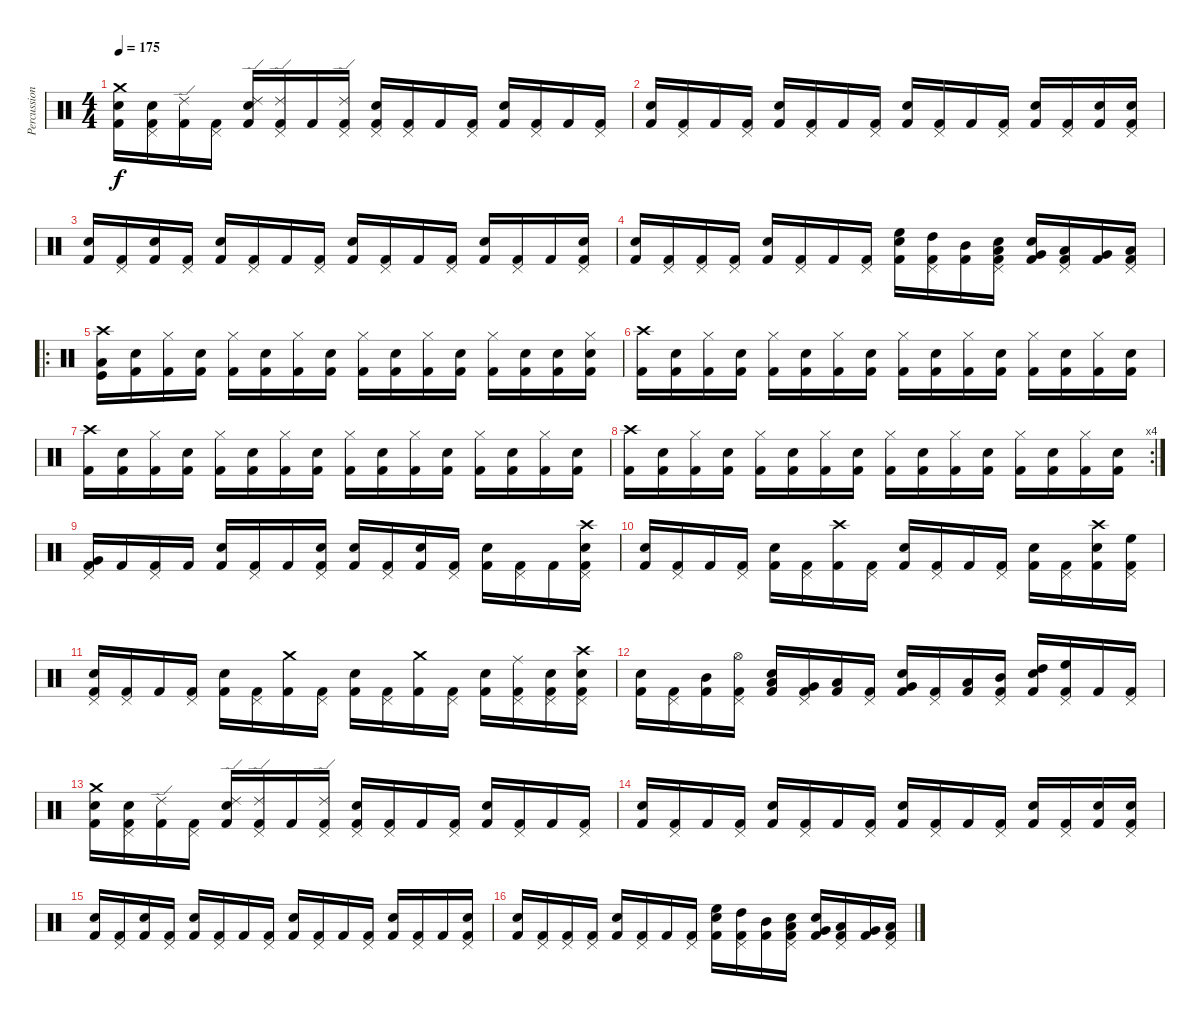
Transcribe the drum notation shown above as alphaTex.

\track ("Percussion" "Percussion") {instrument percussion}
\staff {score}
\articulation defaults
\ts (4 4)
\tempo 175
\clef neutral
\ks c
("Crash medium (hit)" "Snare (hit) 2" "Kick (hit) 2").16{dy f} ("Pedal Hi-Hat (hit)" "Snare (hit) 2" "Kick (hit) 2").16 ("Ride (edge) 2" "Kick (hit) 2").16 ("Pedal Hi-Hat (hit)" "Kick (hit) 2").16 ("Ride (edge) 2" "Snare (hit) 2" "Kick (hit) 2").16 ("Ride (edge) 2" "Pedal Hi-Hat (hit)" "Kick (hit) 2").16 "Kick (hit) 2".16 ("Ride (edge) 2" "Pedal Hi-Hat (hit)" "Kick (hit) 2").16 ("Pedal Hi-Hat (hit)" "Snare (hit) 2" "Kick (hit) 2").16 ("Pedal Hi-Hat (hit)" "Kick (hit) 2").16 "Kick (hit) 2".16 ("Pedal Hi-Hat (hit)" "Kick (hit) 2").16 ("Snare (hit) 2" "Kick (hit) 2").16 ("Pedal Hi-Hat (hit)" "Kick (hit) 2").16 "Kick (hit) 2".16 ("Pedal Hi-Hat (hit)" "Kick (hit) 2").16 |
("Snare (hit) 2" "Kick (hit) 2").16 ("Pedal Hi-Hat (hit)" "Kick (hit) 2").16 "Kick (hit) 2".16 ("Pedal Hi-Hat (hit)" "Kick (hit) 2").16 ("Snare (hit) 2" "Kick (hit) 2").16 ("Pedal Hi-Hat (hit)" "Kick (hit) 2").16 "Kick (hit) 2".16 ("Pedal Hi-Hat (hit)" "Kick (hit) 2").16 ("Snare (hit) 2" "Kick (hit) 2").16 ("Pedal Hi-Hat (hit)" "Kick (hit) 2").16 "Kick (hit) 2".16 ("Pedal Hi-Hat (hit)" "Kick (hit) 2").16 ("Snare (hit) 2" "Kick (hit) 2").16 ("Pedal Hi-Hat (hit)" "Kick (hit) 2").16 ("Snare (hit) 2" "Kick (hit) 2").16 ("Pedal Hi-Hat (hit)" "Snare (hit) 2" "Kick (hit) 2").16 |
("Snare (hit) 2" "Kick (hit) 2").16 ("Pedal Hi-Hat (hit)" "Kick (hit) 2").16 ("Snare (hit) 2" "Kick (hit) 2").16 ("Pedal Hi-Hat (hit)" "Kick (hit) 2").16 ("Snare (hit) 2" "Kick (hit) 2").16 ("Pedal Hi-Hat (hit)" "Kick (hit) 2").16 "Kick (hit) 2".16 ("Pedal Hi-Hat (hit)" "Kick (hit) 2").16 ("Snare (hit) 2" "Kick (hit) 2").16 ("Pedal Hi-Hat (hit)" "Kick (hit) 2").16 "Kick (hit) 2".16 ("Pedal Hi-Hat (hit)" "Kick (hit) 2").16 ("Snare (hit) 2" "Kick (hit) 2").16 ("Pedal Hi-Hat (hit)" "Kick (hit) 2").16 "Kick (hit) 2".16 ("Pedal Hi-Hat (hit)" "Snare (hit) 2" "Kick (hit) 2").16 |
("Snare (hit) 2" "Kick (hit) 2").16 ("Pedal Hi-Hat (hit)" "Kick (hit) 2").16 ("Pedal Hi-Hat (hit)" "Kick (hit) 2").16 ("Pedal Hi-Hat (hit)" "Kick (hit) 2").16 ("Snare (hit) 2" "Kick (hit) 2").16 ("Pedal Hi-Hat (hit)" "Kick (hit) 2").16 "Kick (hit) 2".16 ("Pedal Hi-Hat (hit)" "Kick (hit) 2").16 ("High Floor Tom (hit)" "Snare (hit) 2" "Kick (hit) 2").16 ("High Tom (hit)" "Pedal Hi-Hat (hit)" "Kick (hit) 2").16 ("Mid Tom (hit)" "Kick (hit) 2").16 ("Low Tom (hit)" "Pedal Hi-Hat (hit)" "Snare (hit) 2" "Kick (hit) 2").16 ("Very Low Tom (hit)" "Snare (hit) 2" "Kick (hit) 2").16 ("Low Floor Tom (hit)" "Pedal Hi-Hat (hit)" "Kick (hit) 2").16 ("Very Low Tom (hit)" "Kick (hit) 2").16 ("Low Tom (hit)" "Pedal Hi-Hat (hit)" "Kick (hit) 2").16 |
\ro
("Low Tom (hit)" "Crash high (hit)" "Kick (hit)").16 ("Snare (hit) 2" "Kick (hit) 2").16 ("Hi-Hat (closed)" "Kick (hit) 2").16 ("Snare (hit) 2" "Kick (hit) 2").16 ("Hi-Hat (closed)" "Kick (hit) 2").16 ("Snare (hit) 2" "Kick (hit) 2").16 ("Hi-Hat (closed)" "Kick (hit) 2").16 ("Snare (hit) 2" "Kick (hit) 2").16 ("Hi-Hat (closed)" "Kick (hit) 2").16 ("Snare (hit) 2" "Kick (hit) 2").16 ("Hi-Hat (closed)" "Kick (hit) 2").16 ("Snare (hit) 2" "Kick (hit) 2").16 ("Hi-Hat (closed)" "Kick (hit) 2").16 ("Snare (hit) 2" "Kick (hit) 2").16 ("Snare (hit) 2" "Kick (hit) 2").16 ("Hi-Hat (closed)" "Snare (hit) 2" "Kick (hit) 2").16 |
("Crash high (hit)" "Kick (hit) 2").16 ("Snare (hit) 2" "Kick (hit) 2").16 ("Hi-Hat (closed)" "Kick (hit) 2").16 ("Snare (hit) 2" "Kick (hit) 2").16 ("Hi-Hat (closed)" "Kick (hit) 2").16 ("Snare (hit) 2" "Kick (hit) 2").16 ("Hi-Hat (closed)" "Kick (hit) 2").16 ("Snare (hit) 2" "Kick (hit) 2").16 ("Hi-Hat (closed)" "Kick (hit) 2").16 ("Snare (hit) 2" "Kick (hit) 2").16 ("Hi-Hat (closed)" "Kick (hit) 2").16 ("Snare (hit) 2" "Kick (hit) 2").16 ("Hi-Hat (closed)" "Kick (hit) 2").16 ("Snare (hit) 2" "Kick (hit) 2").16 ("Hi-Hat (closed)" "Kick (hit) 2").16 ("Snare (hit) 2" "Kick (hit) 2").16 |
("Crash high (hit)" "Kick (hit) 2").16 ("Snare (hit) 2" "Kick (hit) 2").16 ("Hi-Hat (closed)" "Kick (hit) 2").16 ("Snare (hit) 2" "Kick (hit) 2").16 ("Hi-Hat (closed)" "Kick (hit) 2").16 ("Snare (hit) 2" "Kick (hit) 2").16 ("Hi-Hat (closed)" "Kick (hit) 2").16 ("Snare (hit) 2" "Kick (hit) 2").16 ("Hi-Hat (closed)" "Kick (hit) 2").16 ("Snare (hit) 2" "Kick (hit) 2").16 ("Hi-Hat (closed)" "Kick (hit) 2").16 ("Snare (hit) 2" "Kick (hit) 2").16 ("Hi-Hat (closed)" "Kick (hit) 2").16 ("Snare (hit) 2" "Kick (hit) 2").16 ("Hi-Hat (closed)" "Kick (hit) 2").16 ("Snare (hit) 2" "Kick (hit) 2").16 |
\rc 4
("Crash high (hit)" "Kick (hit) 2").16 ("Snare (hit) 2" "Kick (hit) 2").16 ("Hi-Hat (closed)" "Kick (hit) 2").16 ("Snare (hit) 2" "Kick (hit) 2").16 ("Hi-Hat (closed)" "Kick (hit) 2").16 ("Snare (hit) 2" "Kick (hit) 2").16 ("Hi-Hat (closed)" "Kick (hit) 2").16 ("Snare (hit) 2" "Kick (hit) 2").16 ("Hi-Hat (closed)" "Kick (hit) 2").16 ("Snare (hit) 2" "Kick (hit) 2").16 ("Hi-Hat (closed)" "Kick (hit) 2").16 ("Snare (hit) 2" "Kick (hit) 2").16 ("Hi-Hat (closed)" "Kick (hit) 2").16 ("Snare (hit) 2" "Kick (hit) 2").16 ("Hi-Hat (closed)" "Kick (hit) 2").16 ("Snare (hit) 2" "Kick (hit) 2").16 |
("Very Low Tom (hit)" "Pedal Hi-Hat (hit)" "Kick (hit) 2").16 "Kick (hit) 2".16 ("Pedal Hi-Hat (hit)" "Kick (hit) 2").16 "Kick (hit) 2".16 ("Snare (hit) 2" "Kick (hit) 2").16 ("Pedal Hi-Hat (hit)" "Kick (hit) 2").16 "Kick (hit) 2".16 ("Pedal Hi-Hat (hit)" "Snare (hit) 2" "Kick (hit) 2").16 ("Snare (hit) 2" "Kick (hit) 2").16 ("Pedal Hi-Hat (hit)" "Kick (hit) 2").16 ("Snare (hit) 2" "Kick (hit) 2").16 ("Pedal Hi-Hat (hit)" "Kick (hit) 2").16 ("Snare (hit) 2" "Kick (hit) 2").16 ("Pedal Hi-Hat (hit)" "Kick (hit) 2").16 "Kick (hit) 2".16 ("Crash high (hit)" "Pedal Hi-Hat (hit)" "Snare (hit) 2" "Kick (hit) 2").16 |
("Snare (hit) 2" "Kick (hit) 2").16 ("Pedal Hi-Hat (hit)" "Kick (hit) 2").16 "Kick (hit) 2".16 ("Pedal Hi-Hat (hit)" "Kick (hit) 2").16 ("Snare (hit) 2" "Kick (hit) 2").16 ("Pedal Hi-Hat (hit)" "Kick (hit) 2").16 ("Crash high (hit)" "Kick (hit) 2").16 ("Pedal Hi-Hat (hit)" "Kick (hit) 2").16 ("Snare (hit) 2" "Kick (hit) 2").16 ("Pedal Hi-Hat (hit)" "Kick (hit) 2").16 "Kick (hit) 2".16 ("Pedal Hi-Hat (hit)" "Kick (hit) 2").16 ("Snare (hit) 2" "Kick (hit) 2").16 ("Pedal Hi-Hat (hit)" "Kick (hit) 2").16 ("Crash high (hit)" "Snare (hit) 2" "Kick (hit) 2").16 ("High Floor Tom (hit)" "Pedal Hi-Hat (hit)" "Kick (hit) 2").16 |
("Pedal Hi-Hat (hit)" "Snare (hit) 2" "Kick (hit) 2").16 ("Pedal Hi-Hat (hit)" "Kick (hit) 2").16 "Kick (hit) 2".16 ("Pedal Hi-Hat (hit)" "Kick (hit) 2").16 ("Snare (hit) 2" "Kick (hit) 2").16 ("Pedal Hi-Hat (hit)" "Kick (hit) 2").16 ("Crash medium (hit)" "Kick (hit) 2").16 ("Pedal Hi-Hat (hit)" "Kick (hit) 2").16 ("Snare (hit) 2" "Kick (hit) 2").16 ("Pedal Hi-Hat (hit)" "Kick (hit) 2").16 ("Crash medium (hit)" "Kick (hit) 2").16 ("Pedal Hi-Hat (hit)" "Kick (hit) 2").16 ("Snare (hit) 2" "Kick (hit) 2").16 ("Ride (middle)" "Pedal Hi-Hat (hit)" "Kick (hit) 2").16 ("Pedal Hi-Hat (hit)" "Snare (hit) 2" "Kick (hit) 2").16 ("Crash high (hit)" "Pedal Hi-Hat (hit)" "Snare (hit) 2" "Kick (hit) 2").16 |
("Snare (hit) 2" "Kick (hit) 2").16 ("Pedal Hi-Hat (hit)" "Kick (hit) 2").16 ("Mid Tom (hit)" "Kick (hit) 2").16 ("Hi-Hat (open)" "Pedal Hi-Hat (hit)" "Kick (hit) 2").16 ("Low Tom (hit)" "Snare (hit) 2" "Kick (hit) 2").16 ("Very Low Tom (hit)" "Pedal Hi-Hat (hit)" "Kick (hit) 2").16 ("Low Floor Tom (hit)" "Kick (hit) 2").16 ("Pedal Hi-Hat (hit)" "Kick (hit) 2").16 ("Very Low Tom (hit)" "Snare (hit) 2" "Kick (hit) 2").16 ("Pedal Hi-Hat (hit)" "Kick (hit) 2").16 ("Low Tom (hit)" "Kick (hit) 2").16 ("Mid Tom (hit)" "Pedal Hi-Hat (hit)" "Kick (hit) 2").16 ("High Tom (hit)" "Snare (hit) 2" "Kick (hit) 2").16 ("High Floor Tom (hit)" "Pedal Hi-Hat (hit)" "Kick (hit) 2").16 "Kick (hit) 2".16 ("Pedal Hi-Hat (hit)" "Kick (hit) 2").16 |
("Crash medium (hit)" "Snare (hit) 2" "Kick (hit) 2").16 ("Pedal Hi-Hat (hit)" "Snare (hit) 2" "Kick (hit) 2").16 ("Ride (edge) 2" "Kick (hit) 2").16 ("Pedal Hi-Hat (hit)" "Kick (hit) 2").16 ("Ride (edge) 2" "Snare (hit) 2" "Kick (hit) 2").16 ("Ride (edge) 2" "Pedal Hi-Hat (hit)" "Kick (hit) 2").16 "Kick (hit) 2".16 ("Ride (edge) 2" "Pedal Hi-Hat (hit)" "Kick (hit) 2").16 ("Pedal Hi-Hat (hit)" "Snare (hit) 2" "Kick (hit) 2").16 ("Pedal Hi-Hat (hit)" "Kick (hit) 2").16 "Kick (hit) 2".16 ("Pedal Hi-Hat (hit)" "Kick (hit) 2").16 ("Snare (hit) 2" "Kick (hit) 2").16 ("Pedal Hi-Hat (hit)" "Kick (hit) 2").16 "Kick (hit) 2".16 ("Pedal Hi-Hat (hit)" "Kick (hit) 2").16 |
("Snare (hit) 2" "Kick (hit) 2").16 ("Pedal Hi-Hat (hit)" "Kick (hit) 2").16 "Kick (hit) 2".16 ("Pedal Hi-Hat (hit)" "Kick (hit) 2").16 ("Snare (hit) 2" "Kick (hit) 2").16 ("Pedal Hi-Hat (hit)" "Kick (hit) 2").16 "Kick (hit) 2".16 ("Pedal Hi-Hat (hit)" "Kick (hit) 2").16 ("Snare (hit) 2" "Kick (hit) 2").16 ("Pedal Hi-Hat (hit)" "Kick (hit) 2").16 "Kick (hit) 2".16 ("Pedal Hi-Hat (hit)" "Kick (hit) 2").16 ("Snare (hit) 2" "Kick (hit) 2").16 ("Pedal Hi-Hat (hit)" "Kick (hit) 2").16 ("Snare (hit) 2" "Kick (hit) 2").16 ("Pedal Hi-Hat (hit)" "Snare (hit) 2" "Kick (hit) 2").16 |
("Snare (hit) 2" "Kick (hit) 2").16 ("Pedal Hi-Hat (hit)" "Kick (hit) 2").16 ("Snare (hit) 2" "Kick (hit) 2").16 ("Pedal Hi-Hat (hit)" "Kick (hit) 2").16 ("Snare (hit) 2" "Kick (hit) 2").16 ("Pedal Hi-Hat (hit)" "Kick (hit) 2").16 "Kick (hit) 2".16 ("Pedal Hi-Hat (hit)" "Kick (hit) 2").16 ("Snare (hit) 2" "Kick (hit) 2").16 ("Pedal Hi-Hat (hit)" "Kick (hit) 2").16 "Kick (hit) 2".16 ("Pedal Hi-Hat (hit)" "Kick (hit) 2").16 ("Snare (hit) 2" "Kick (hit) 2").16 ("Pedal Hi-Hat (hit)" "Kick (hit) 2").16 "Kick (hit) 2".16 ("Pedal Hi-Hat (hit)" "Snare (hit) 2" "Kick (hit) 2").16 |
("Snare (hit) 2" "Kick (hit) 2").16 ("Pedal Hi-Hat (hit)" "Kick (hit) 2").16 ("Pedal Hi-Hat (hit)" "Kick (hit) 2").16 ("Pedal Hi-Hat (hit)" "Kick (hit) 2").16 ("Snare (hit) 2" "Kick (hit) 2").16 ("Pedal Hi-Hat (hit)" "Kick (hit) 2").16 "Kick (hit) 2".16 ("Pedal Hi-Hat (hit)" "Kick (hit) 2").16 ("High Floor Tom (hit)" "Snare (hit) 2" "Kick (hit) 2").16 ("High Tom (hit)" "Pedal Hi-Hat (hit)" "Kick (hit) 2").16 ("Mid Tom (hit)" "Kick (hit) 2").16 ("Low Tom (hit)" "Pedal Hi-Hat (hit)" "Snare (hit) 2" "Kick (hit) 2").16 ("Very Low Tom (hit)" "Snare (hit) 2" "Kick (hit) 2").16 ("Low Floor Tom (hit)" "Pedal Hi-Hat (hit)" "Kick (hit) 2").16 ("Very Low Tom (hit)" "Kick (hit) 2").16 ("Low Tom (hit)" "Pedal Hi-Hat (hit)" "Kick (hit) 2").16
